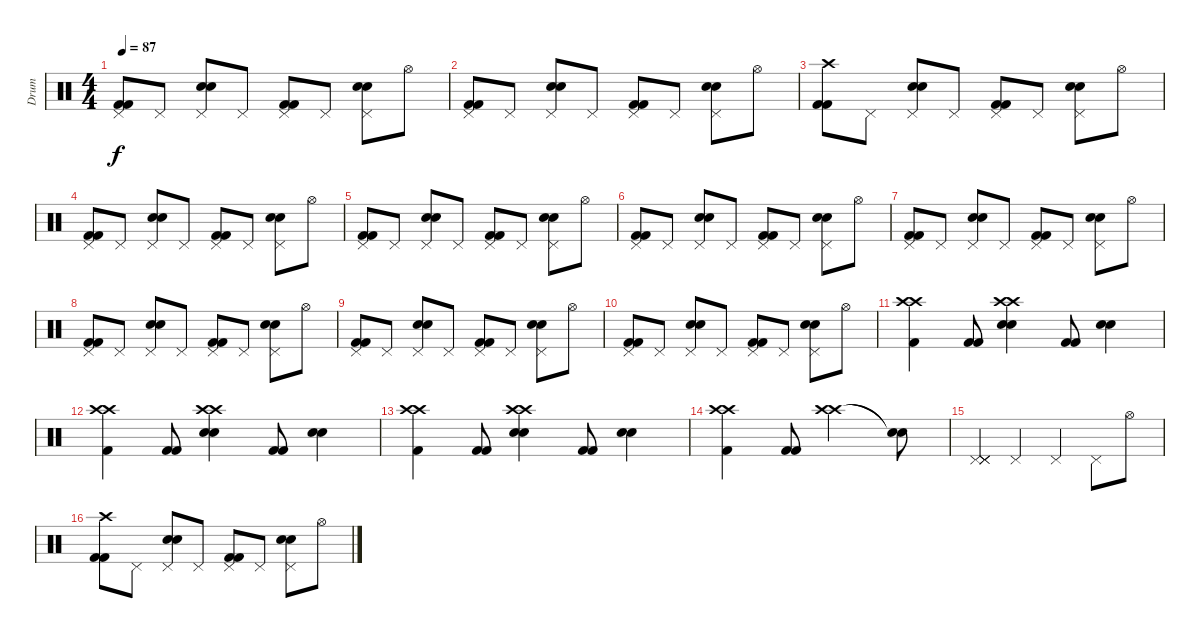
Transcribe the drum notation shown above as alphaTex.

\track ("Drum" "Drum") {instrument percussion}
\staff {score}
\articulation defaults
\ts (4 4)
\tempo 87
\clef neutral
\ks c
("Pedal Hi-Hat (hit)" "Kick (hit) 2" "Kick (hit) 2").8{dy f} "Pedal Hi-Hat (hit)".8 ("Pedal Hi-Hat (hit)" "Electric Snare (hit)" "Electric Snare (hit)").8 "Pedal Hi-Hat (hit)".8 ("Pedal Hi-Hat (hit)" "Kick (hit) 2" "Kick (hit) 2").8 "Pedal Hi-Hat (hit)".8 ("Pedal Hi-Hat (hit)" "Electric Snare (hit)" "Electric Snare (hit)").8 "Hi-Hat (open)".8 |
("Pedal Hi-Hat (hit)" "Kick (hit) 2" "Kick (hit) 2").8 "Pedal Hi-Hat (hit)".8 ("Pedal Hi-Hat (hit)" "Electric Snare (hit)" "Electric Snare (hit)").8 "Pedal Hi-Hat (hit)".8 ("Pedal Hi-Hat (hit)" "Kick (hit) 2" "Kick (hit) 2").8 "Pedal Hi-Hat (hit)".8 ("Pedal Hi-Hat (hit)" "Electric Snare (hit)" "Electric Snare (hit)").8 "Hi-Hat (open)".8 |
("Crash high (hit)" "Kick (hit) 2" "Kick (hit) 2").8 "Pedal Hi-Hat (hit)".8 ("Pedal Hi-Hat (hit)" "Electric Snare (hit)" "Electric Snare (hit)").8 "Pedal Hi-Hat (hit)".8 ("Pedal Hi-Hat (hit)" "Kick (hit) 2" "Kick (hit) 2").8 "Pedal Hi-Hat (hit)".8 ("Pedal Hi-Hat (hit)" "Electric Snare (hit)" "Electric Snare (hit)").8 "Hi-Hat (open)".8 |
("Pedal Hi-Hat (hit)" "Kick (hit) 2" "Kick (hit) 2").8 "Pedal Hi-Hat (hit)".8 ("Pedal Hi-Hat (hit)" "Electric Snare (hit)" "Electric Snare (hit)").8 "Pedal Hi-Hat (hit)".8 ("Pedal Hi-Hat (hit)" "Kick (hit) 2" "Kick (hit) 2").8 "Pedal Hi-Hat (hit)".8 ("Pedal Hi-Hat (hit)" "Electric Snare (hit)" "Electric Snare (hit)").8 "Hi-Hat (open)".8 |
("Pedal Hi-Hat (hit)" "Kick (hit) 2" "Kick (hit) 2").8 "Pedal Hi-Hat (hit)".8 ("Pedal Hi-Hat (hit)" "Electric Snare (hit)" "Electric Snare (hit)").8 "Pedal Hi-Hat (hit)".8 ("Pedal Hi-Hat (hit)" "Kick (hit) 2" "Kick (hit) 2").8 "Pedal Hi-Hat (hit)".8 ("Pedal Hi-Hat (hit)" "Electric Snare (hit)" "Electric Snare (hit)").8 "Hi-Hat (open)".8 |
("Pedal Hi-Hat (hit)" "Kick (hit) 2" "Kick (hit) 2").8 "Pedal Hi-Hat (hit)".8 ("Pedal Hi-Hat (hit)" "Electric Snare (hit)" "Electric Snare (hit)").8 "Pedal Hi-Hat (hit)".8 ("Pedal Hi-Hat (hit)" "Kick (hit) 2" "Kick (hit) 2").8 "Pedal Hi-Hat (hit)".8 ("Pedal Hi-Hat (hit)" "Electric Snare (hit)" "Electric Snare (hit)").8 "Hi-Hat (open)".8 |
("Pedal Hi-Hat (hit)" "Kick (hit) 2" "Kick (hit) 2").8 "Pedal Hi-Hat (hit)".8 ("Pedal Hi-Hat (hit)" "Electric Snare (hit)" "Electric Snare (hit)").8 "Pedal Hi-Hat (hit)".8 ("Pedal Hi-Hat (hit)" "Kick (hit) 2" "Kick (hit) 2").8 "Pedal Hi-Hat (hit)".8 ("Pedal Hi-Hat (hit)" "Electric Snare (hit)" "Electric Snare (hit)").8 "Hi-Hat (open)".8 |
("Pedal Hi-Hat (hit)" "Kick (hit) 2" "Kick (hit) 2").8 "Pedal Hi-Hat (hit)".8 ("Pedal Hi-Hat (hit)" "Electric Snare (hit)" "Electric Snare (hit)").8 "Pedal Hi-Hat (hit)".8 ("Pedal Hi-Hat (hit)" "Kick (hit) 2" "Kick (hit) 2").8 "Pedal Hi-Hat (hit)".8 ("Pedal Hi-Hat (hit)" "Electric Snare (hit)" "Electric Snare (hit)").8 "Hi-Hat (open)".8 |
("Pedal Hi-Hat (hit)" "Kick (hit) 2" "Kick (hit) 2").8 "Pedal Hi-Hat (hit)".8 ("Pedal Hi-Hat (hit)" "Electric Snare (hit)" "Electric Snare (hit)").8 "Pedal Hi-Hat (hit)".8 ("Pedal Hi-Hat (hit)" "Kick (hit) 2" "Kick (hit) 2").8 "Pedal Hi-Hat (hit)".8 ("Pedal Hi-Hat (hit)" "Electric Snare (hit)" "Electric Snare (hit)").8 "Hi-Hat (open)".8 |
("Pedal Hi-Hat (hit)" "Kick (hit) 2" "Kick (hit) 2").8 "Pedal Hi-Hat (hit)".8 ("Pedal Hi-Hat (hit)" "Electric Snare (hit)" "Electric Snare (hit)").8 "Pedal Hi-Hat (hit)".8 ("Pedal Hi-Hat (hit)" "Kick (hit) 2" "Kick (hit) 2").8 "Pedal Hi-Hat (hit)".8 ("Pedal Hi-Hat (hit)" "Electric Snare (hit)" "Electric Snare (hit)").8 "Hi-Hat (open)".8 |
("Crash high (hit)" "Crash high (hit)" "Kick (hit) 2").4 ("Kick (hit) 2" "Kick (hit) 2").8 ("Crash high (hit)" "Crash high (hit)" "Electric Snare (hit)" "Electric Snare (hit)").4 ("Kick (hit) 2" "Kick (hit) 2").8 ("Electric Snare (hit)" "Electric Snare (hit)").4 |
("Crash high (hit)" "Crash high (hit)" "Kick (hit) 2").4 ("Kick (hit) 2" "Kick (hit) 2").8 ("Crash high (hit)" "Crash high (hit)" "Electric Snare (hit)" "Electric Snare (hit)").4 ("Kick (hit) 2" "Kick (hit) 2").8 ("Electric Snare (hit)" "Electric Snare (hit)").4 |
("Crash high (hit)" "Crash high (hit)" "Kick (hit) 2").4 ("Kick (hit) 2" "Kick (hit) 2").8 ("Crash high (hit)" "Crash high (hit)" "Electric Snare (hit)" "Electric Snare (hit)").4 ("Kick (hit) 2" "Kick (hit) 2").8 ("Electric Snare (hit)" "Electric Snare (hit)").4 |
("Crash high (hit)" "Crash high (hit)" "Kick (hit) 2").4 ("Kick (hit) 2" "Kick (hit) 2").8 ("Crash high (hit)" "Crash high (hit)").2 ("Snare (hit)"{t} "Snare (hit)"{t}).8 |
("Pedal Hi-Hat (hit)" "Pedal Hi-Hat (hit)" "Pedal Hi-Hat (hit)" "Pedal Hi-Hat (hit)").4 "Pedal Hi-Hat (hit)".4 "Pedal Hi-Hat (hit)".4 "Pedal Hi-Hat (hit)".8 "Hi-Hat (open)".8 |
("Crash high (hit)" "Kick (hit) 2" "Kick (hit) 2").8 "Pedal Hi-Hat (hit)".8 ("Pedal Hi-Hat (hit)" "Electric Snare (hit)" "Electric Snare (hit)").8 "Pedal Hi-Hat (hit)".8 ("Pedal Hi-Hat (hit)" "Kick (hit) 2" "Kick (hit) 2").8 "Pedal Hi-Hat (hit)".8 ("Pedal Hi-Hat (hit)" "Electric Snare (hit)" "Electric Snare (hit)").8 "Hi-Hat (open)".8
